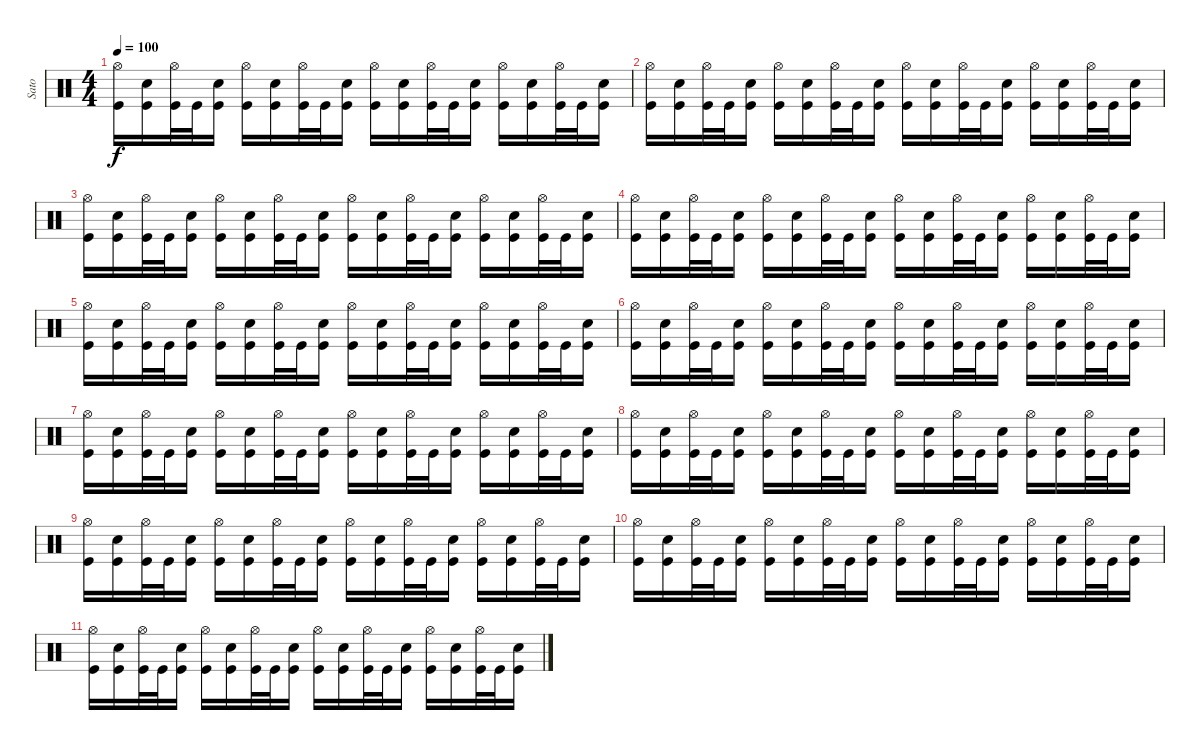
\track ("Sato" "Sato") {instrument percussion}
\staff {score}
\articulation defaults
\ts (4 4)
\tempo 100
\clef neutral
\ks c
("Hi-Hat (open)" "Kick (hit)").16{dy f} ("Electric Snare (hit)" "Kick (hit)").16 ("Hi-Hat (open)" "Kick (hit)").32 "Kick (hit)".32 ("Electric Snare (hit)" "Kick (hit)").16 ("Hi-Hat (open)" "Kick (hit)").16 ("Electric Snare (hit)" "Kick (hit)").16 ("Hi-Hat (open)" "Kick (hit)").32 "Kick (hit)".32 ("Electric Snare (hit)" "Kick (hit)").16 ("Hi-Hat (open)" "Kick (hit)").16 ("Electric Snare (hit)" "Kick (hit)").16 ("Hi-Hat (open)" "Kick (hit)").32 "Kick (hit)".32 ("Electric Snare (hit)" "Kick (hit)").16 ("Hi-Hat (open)" "Kick (hit)").16 ("Electric Snare (hit)" "Kick (hit)").16 ("Hi-Hat (open)" "Kick (hit)").32 "Kick (hit)".32 ("Electric Snare (hit)" "Kick (hit)").16 |
("Hi-Hat (open)" "Kick (hit)").16 ("Electric Snare (hit)" "Kick (hit)").16 ("Hi-Hat (open)" "Kick (hit)").32 "Kick (hit)".32 ("Electric Snare (hit)" "Kick (hit)").16 ("Hi-Hat (open)" "Kick (hit)").16 ("Electric Snare (hit)" "Kick (hit)").16 ("Hi-Hat (open)" "Kick (hit)").32 "Kick (hit)".32 ("Electric Snare (hit)" "Kick (hit)").16 ("Hi-Hat (open)" "Kick (hit)").16 ("Electric Snare (hit)" "Kick (hit)").16 ("Hi-Hat (open)" "Kick (hit)").32 "Kick (hit)".32 ("Electric Snare (hit)" "Kick (hit)").16 ("Hi-Hat (open)" "Kick (hit)").16 ("Electric Snare (hit)" "Kick (hit)").16 ("Hi-Hat (open)" "Kick (hit)").32 "Kick (hit)".32 ("Electric Snare (hit)" "Kick (hit)").16 |
("Hi-Hat (open)" "Kick (hit)").16 ("Electric Snare (hit)" "Kick (hit)").16 ("Hi-Hat (open)" "Kick (hit)").32 "Kick (hit)".32 ("Electric Snare (hit)" "Kick (hit)").16 ("Hi-Hat (open)" "Kick (hit)").16 ("Electric Snare (hit)" "Kick (hit)").16 ("Hi-Hat (open)" "Kick (hit)").32 "Kick (hit)".32 ("Electric Snare (hit)" "Kick (hit)").16 ("Hi-Hat (open)" "Kick (hit)").16 ("Electric Snare (hit)" "Kick (hit)").16 ("Hi-Hat (open)" "Kick (hit)").32 "Kick (hit)".32 ("Electric Snare (hit)" "Kick (hit)").16 ("Hi-Hat (open)" "Kick (hit)").16 ("Electric Snare (hit)" "Kick (hit)").16 ("Hi-Hat (open)" "Kick (hit)").32 "Kick (hit)".32 ("Electric Snare (hit)" "Kick (hit)").16 |
("Hi-Hat (open)" "Kick (hit)").16 ("Electric Snare (hit)" "Kick (hit)").16 ("Hi-Hat (open)" "Kick (hit)").32 "Kick (hit)".32 ("Electric Snare (hit)" "Kick (hit)").16 ("Hi-Hat (open)" "Kick (hit)").16 ("Electric Snare (hit)" "Kick (hit)").16 ("Hi-Hat (open)" "Kick (hit)").32 "Kick (hit)".32 ("Electric Snare (hit)" "Kick (hit)").16 ("Hi-Hat (open)" "Kick (hit)").16 ("Electric Snare (hit)" "Kick (hit)").16 ("Hi-Hat (open)" "Kick (hit)").32 "Kick (hit)".32 ("Electric Snare (hit)" "Kick (hit)").16 ("Hi-Hat (open)" "Kick (hit)").16 ("Electric Snare (hit)" "Kick (hit)").16 ("Hi-Hat (open)" "Kick (hit)").32 "Kick (hit)".32 ("Electric Snare (hit)" "Kick (hit)").16 |
("Hi-Hat (open)" "Kick (hit)").16 ("Electric Snare (hit)" "Kick (hit)").16 ("Hi-Hat (open)" "Kick (hit)").32 "Kick (hit)".32 ("Electric Snare (hit)" "Kick (hit)").16 ("Hi-Hat (open)" "Kick (hit)").16 ("Electric Snare (hit)" "Kick (hit)").16 ("Hi-Hat (open)" "Kick (hit)").32 "Kick (hit)".32 ("Electric Snare (hit)" "Kick (hit)").16 ("Hi-Hat (open)" "Kick (hit)").16 ("Electric Snare (hit)" "Kick (hit)").16 ("Hi-Hat (open)" "Kick (hit)").32 "Kick (hit)".32 ("Electric Snare (hit)" "Kick (hit)").16 ("Hi-Hat (open)" "Kick (hit)").16 ("Electric Snare (hit)" "Kick (hit)").16 ("Hi-Hat (open)" "Kick (hit)").32 "Kick (hit)".32 ("Electric Snare (hit)" "Kick (hit)").16 |
("Hi-Hat (open)" "Kick (hit)").16 ("Electric Snare (hit)" "Kick (hit)").16 ("Hi-Hat (open)" "Kick (hit)").32 "Kick (hit)".32 ("Electric Snare (hit)" "Kick (hit)").16 ("Hi-Hat (open)" "Kick (hit)").16 ("Electric Snare (hit)" "Kick (hit)").16 ("Hi-Hat (open)" "Kick (hit)").32 "Kick (hit)".32 ("Electric Snare (hit)" "Kick (hit)").16 ("Hi-Hat (open)" "Kick (hit)").16 ("Electric Snare (hit)" "Kick (hit)").16 ("Hi-Hat (open)" "Kick (hit)").32 "Kick (hit)".32 ("Electric Snare (hit)" "Kick (hit)").16 ("Hi-Hat (open)" "Kick (hit)").16 ("Electric Snare (hit)" "Kick (hit)").16 ("Hi-Hat (open)" "Kick (hit)").32 "Kick (hit)".32 ("Electric Snare (hit)" "Kick (hit)").16 |
("Hi-Hat (open)" "Kick (hit)").16 ("Electric Snare (hit)" "Kick (hit)").16 ("Hi-Hat (open)" "Kick (hit)").32 "Kick (hit)".32 ("Electric Snare (hit)" "Kick (hit)").16 ("Hi-Hat (open)" "Kick (hit)").16 ("Electric Snare (hit)" "Kick (hit)").16 ("Hi-Hat (open)" "Kick (hit)").32 "Kick (hit)".32 ("Electric Snare (hit)" "Kick (hit)").16 ("Hi-Hat (open)" "Kick (hit)").16 ("Electric Snare (hit)" "Kick (hit)").16 ("Hi-Hat (open)" "Kick (hit)").32 "Kick (hit)".32 ("Electric Snare (hit)" "Kick (hit)").16 ("Hi-Hat (open)" "Kick (hit)").16 ("Electric Snare (hit)" "Kick (hit)").16 ("Hi-Hat (open)" "Kick (hit)").32 "Kick (hit)".32 ("Electric Snare (hit)" "Kick (hit)").16 |
("Hi-Hat (open)" "Kick (hit)").16 ("Electric Snare (hit)" "Kick (hit)").16 ("Hi-Hat (open)" "Kick (hit)").32 "Kick (hit)".32 ("Electric Snare (hit)" "Kick (hit)").16 ("Hi-Hat (open)" "Kick (hit)").16 ("Electric Snare (hit)" "Kick (hit)").16 ("Hi-Hat (open)" "Kick (hit)").32 "Kick (hit)".32 ("Electric Snare (hit)" "Kick (hit)").16 ("Hi-Hat (open)" "Kick (hit)").16 ("Electric Snare (hit)" "Kick (hit)").16 ("Hi-Hat (open)" "Kick (hit)").32 "Kick (hit)".32 ("Electric Snare (hit)" "Kick (hit)").16 ("Hi-Hat (open)" "Kick (hit)").16 ("Electric Snare (hit)" "Kick (hit)").16 ("Hi-Hat (open)" "Kick (hit)").32 "Kick (hit)".32 ("Electric Snare (hit)" "Kick (hit)").16 |
("Hi-Hat (open)" "Kick (hit)").16 ("Electric Snare (hit)" "Kick (hit)").16 ("Hi-Hat (open)" "Kick (hit)").32 "Kick (hit)".32 ("Electric Snare (hit)" "Kick (hit)").16 ("Hi-Hat (open)" "Kick (hit)").16 ("Electric Snare (hit)" "Kick (hit)").16 ("Hi-Hat (open)" "Kick (hit)").32 "Kick (hit)".32 ("Electric Snare (hit)" "Kick (hit)").16 ("Hi-Hat (open)" "Kick (hit)").16 ("Electric Snare (hit)" "Kick (hit)").16 ("Hi-Hat (open)" "Kick (hit)").32 "Kick (hit)".32 ("Electric Snare (hit)" "Kick (hit)").16 ("Hi-Hat (open)" "Kick (hit)").16 ("Electric Snare (hit)" "Kick (hit)").16 ("Hi-Hat (open)" "Kick (hit)").32 "Kick (hit)".32 ("Electric Snare (hit)" "Kick (hit)").16 |
("Hi-Hat (open)" "Kick (hit)").16 ("Electric Snare (hit)" "Kick (hit)").16 ("Hi-Hat (open)" "Kick (hit)").32 "Kick (hit)".32 ("Electric Snare (hit)" "Kick (hit)").16 ("Hi-Hat (open)" "Kick (hit)").16 ("Electric Snare (hit)" "Kick (hit)").16 ("Hi-Hat (open)" "Kick (hit)").32 "Kick (hit)".32 ("Electric Snare (hit)" "Kick (hit)").16 ("Hi-Hat (open)" "Kick (hit)").16 ("Electric Snare (hit)" "Kick (hit)").16 ("Hi-Hat (open)" "Kick (hit)").32 "Kick (hit)".32 ("Electric Snare (hit)" "Kick (hit)").16 ("Hi-Hat (open)" "Kick (hit)").16 ("Electric Snare (hit)" "Kick (hit)").16 ("Hi-Hat (open)" "Kick (hit)").32 "Kick (hit)".32 ("Electric Snare (hit)" "Kick (hit)").16 |
("Hi-Hat (open)" "Kick (hit)").16 ("Electric Snare (hit)" "Kick (hit)").16 ("Hi-Hat (open)" "Kick (hit)").32 "Kick (hit)".32 ("Electric Snare (hit)" "Kick (hit)").16 ("Hi-Hat (open)" "Kick (hit)").16 ("Electric Snare (hit)" "Kick (hit)").16 ("Hi-Hat (open)" "Kick (hit)").32 "Kick (hit)".32 ("Electric Snare (hit)" "Kick (hit)").16 ("Hi-Hat (open)" "Kick (hit)").16 ("Electric Snare (hit)" "Kick (hit)").16 ("Hi-Hat (open)" "Kick (hit)").32 "Kick (hit)".32 ("Electric Snare (hit)" "Kick (hit)").16 ("Hi-Hat (open)" "Kick (hit)").16 ("Electric Snare (hit)" "Kick (hit)").16 ("Hi-Hat (open)" "Kick (hit)").32 "Kick (hit)".32 ("Electric Snare (hit)" "Kick (hit)").16
